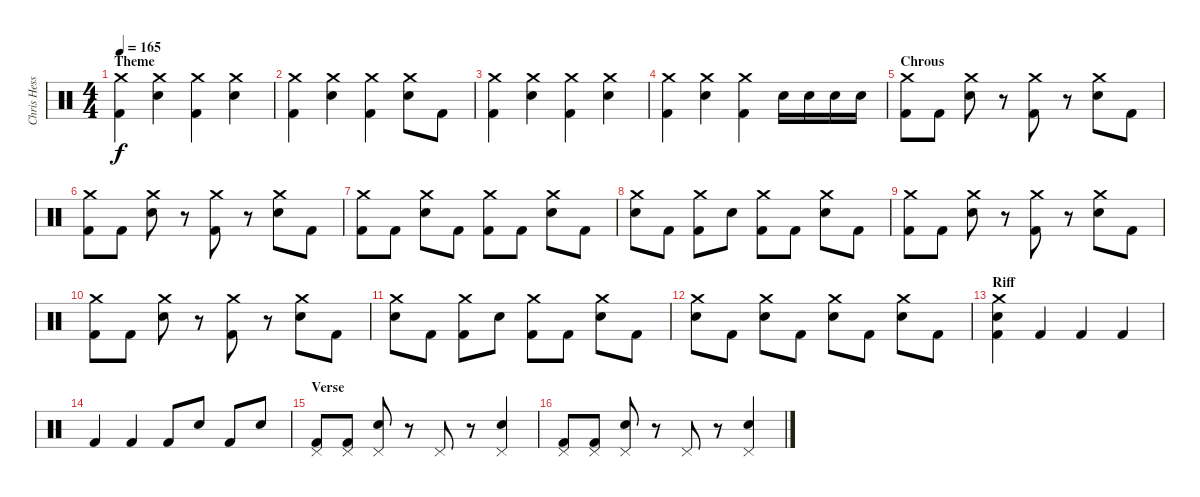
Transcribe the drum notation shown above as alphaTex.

\track ("Chris Hesse" "Chris Hess") {instrument percussion}
\staff {score}
\articulation defaults
\ts (4 4)
\section ("" "Theme")
\tempo 165
\clef neutral
\ks c
("Crash medium (hit)" "Kick (hit) 2").4{dy f} ("Crash medium (hit)" "Snare (hit) 2").4 ("Crash medium (hit)" "Kick (hit) 2").4 ("Crash medium (hit)" "Snare (hit) 2").4 |
("Crash medium (hit)" "Kick (hit) 2").4 ("Crash medium (hit)" "Snare (hit) 2").4 ("Crash medium (hit)" "Kick (hit) 2").4 ("Crash medium (hit)" "Snare (hit) 2").8 "Kick (hit) 2".8 |
("Crash medium (hit)" "Kick (hit) 2").4 ("Crash medium (hit)" "Snare (hit) 2").4 ("Crash medium (hit)" "Kick (hit) 2").4 ("Crash medium (hit)" "Snare (hit) 2").4 |
("Crash medium (hit)" "Kick (hit) 2").4 ("Crash medium (hit)" "Snare (hit) 2").4 ("Crash medium (hit)" "Kick (hit) 2").4 "Snare (hit) 2".16 "Snare (hit) 2".16 "Snare (hit) 2".16 "Snare (hit) 2".16 |
\section ("" "Chrous")
("Crash medium (hit)" "Kick (hit) 2").8 "Kick (hit) 2".8 ("Crash medium (hit)" "Snare (hit) 2").8 r.8 ("Crash medium (hit)" "Kick (hit) 2").8 r.8 ("Crash medium (hit)" "Snare (hit) 2").8 "Kick (hit) 2".8 |
("Crash medium (hit)" "Kick (hit) 2").8 "Kick (hit) 2".8 ("Crash medium (hit)" "Snare (hit) 2").8 r.8 ("Crash medium (hit)" "Kick (hit) 2").8 r.8 ("Crash medium (hit)" "Snare (hit) 2").8 "Kick (hit) 2".8 |
("Crash medium (hit)" "Kick (hit) 2").8 "Kick (hit) 2".8 ("Crash medium (hit)" "Snare (hit) 2").8 "Kick (hit) 2".8 ("Crash medium (hit)" "Kick (hit) 2").8 "Kick (hit) 2".8 ("Crash medium (hit)" "Snare (hit) 2").8 "Kick (hit) 2".8 |
("Crash medium (hit)" "Snare (hit) 2").8 "Kick (hit) 2".8 ("Crash medium (hit)" "Kick (hit) 2").8 "Snare (hit) 2".8 ("Crash medium (hit)" "Kick (hit) 2").8 "Kick (hit) 2".8 ("Crash medium (hit)" "Snare (hit) 2").8 "Kick (hit) 2".8 |
("Crash medium (hit)" "Kick (hit) 2").8 "Kick (hit) 2".8 ("Crash medium (hit)" "Snare (hit) 2").8 r.8 ("Crash medium (hit)" "Kick (hit) 2").8 r.8 ("Crash medium (hit)" "Snare (hit) 2").8 "Kick (hit) 2".8 |
("Crash medium (hit)" "Kick (hit) 2").8 "Kick (hit) 2".8 ("Crash medium (hit)" "Snare (hit) 2").8 r.8 ("Crash medium (hit)" "Kick (hit) 2").8 r.8 ("Crash medium (hit)" "Snare (hit) 2").8 "Kick (hit) 2".8 |
("Crash medium (hit)" "Snare (hit) 2").8 "Kick (hit) 2".8 ("Crash medium (hit)" "Kick (hit) 2").8 "Snare (hit) 2".8 ("Crash medium (hit)" "Kick (hit) 2").8 "Kick (hit) 2".8 ("Crash medium (hit)" "Snare (hit) 2").8 "Kick (hit) 2".8 |
("Crash medium (hit)" "Snare (hit) 2").8 "Kick (hit) 2".8 ("Crash medium (hit)" "Snare (hit) 2").8 "Kick (hit) 2".8 ("Crash medium (hit)" "Snare (hit) 2").8 "Kick (hit) 2".8 ("Crash medium (hit)" "Snare (hit) 2").8 "Kick (hit) 2".8 |
\section ("" "Riff")
("Kick (hit) 2" "Snare (hit) 2" "Crash medium (hit)").4 "Kick (hit) 2".4 "Kick (hit) 2".4 "Kick (hit) 2".4 |
"Kick (hit) 2".4 "Kick (hit) 2".4 "Kick (hit) 2".8 "Snare (hit) 2".8 "Kick (hit) 2".8 "Snare (hit) 2".8 |
\section ("" "Verse")
("Pedal Hi-Hat (hit)" "Kick (hit) 2").8 ("Pedal Hi-Hat (hit)" "Kick (hit) 2").8 ("Pedal Hi-Hat (hit)" "Snare (hit) 2").8 r.8 "Pedal Hi-Hat (hit)".8 r.8 ("Pedal Hi-Hat (hit)" "Snare (hit) 2").4 |
("Pedal Hi-Hat (hit)" "Kick (hit) 2").8 ("Pedal Hi-Hat (hit)" "Kick (hit) 2").8 ("Pedal Hi-Hat (hit)" "Snare (hit) 2").8 r.8 "Pedal Hi-Hat (hit)".8 r.8 ("Pedal Hi-Hat (hit)" "Snare (hit) 2").4
